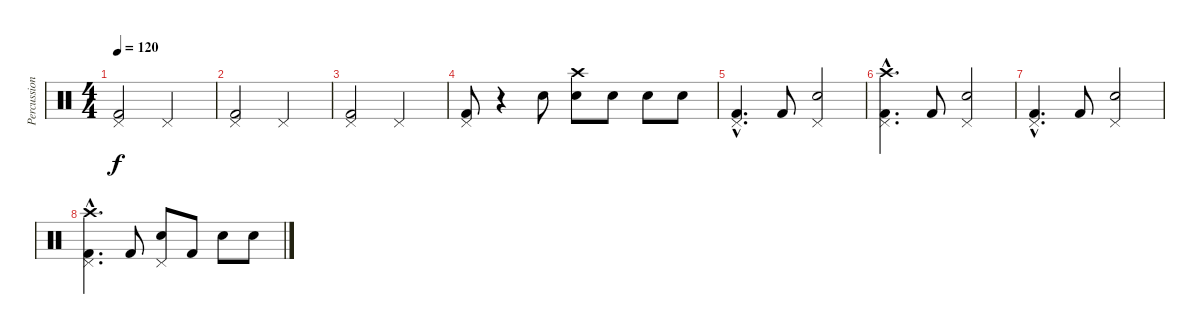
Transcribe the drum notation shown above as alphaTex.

\track ("Percussion" "Percussion") {instrument percussion}
\staff {score}
\articulation defaults
\ts (4 4)
\tempo 120
\clef neutral
\ks c
("Kick (hit) 2" "Pedal Hi-Hat (hit)").2{dy f} "Pedal Hi-Hat (hit)".2 |
("Kick (hit) 2" "Pedal Hi-Hat (hit)").2 "Pedal Hi-Hat (hit)".2 |
("Kick (hit) 2" "Pedal Hi-Hat (hit)").2 "Pedal Hi-Hat (hit)".2 |
("Kick (hit) 2" "Pedal Hi-Hat (hit)").8 r.4 "Snare (hit) 2".8 ("Snare (hit) 2" "Crash high (hit)").8 "Snare (hit) 2".8 "Snare (hit) 2".8 "Snare (hit) 2".8 |
("Kick (hit) 2"{hac} "Pedal Hi-Hat (hit)"{hac}).4{d} "Kick (hit) 2".8 ("Snare (hit) 2" "Pedal Hi-Hat (hit)").2 |
("Kick (hit) 2"{hac} "Pedal Hi-Hat (hit)"{hac} "Crash high (hit)"{hac}).4{d} "Kick (hit) 2".8 ("Snare (hit) 2" "Pedal Hi-Hat (hit)").2 |
("Kick (hit) 2"{hac} "Pedal Hi-Hat (hit)"{hac}).4{d} "Kick (hit) 2".8 ("Snare (hit) 2" "Pedal Hi-Hat (hit)").2 |
("Kick (hit) 2"{hac} "Pedal Hi-Hat (hit)"{hac} "Crash high (hit)"{hac}).4{d} "Kick (hit) 2".8 ("Snare (hit) 2" "Pedal Hi-Hat (hit)").8 "Kick (hit) 2".8 "Snare (hit) 2".8 "Snare (hit) 2".8
